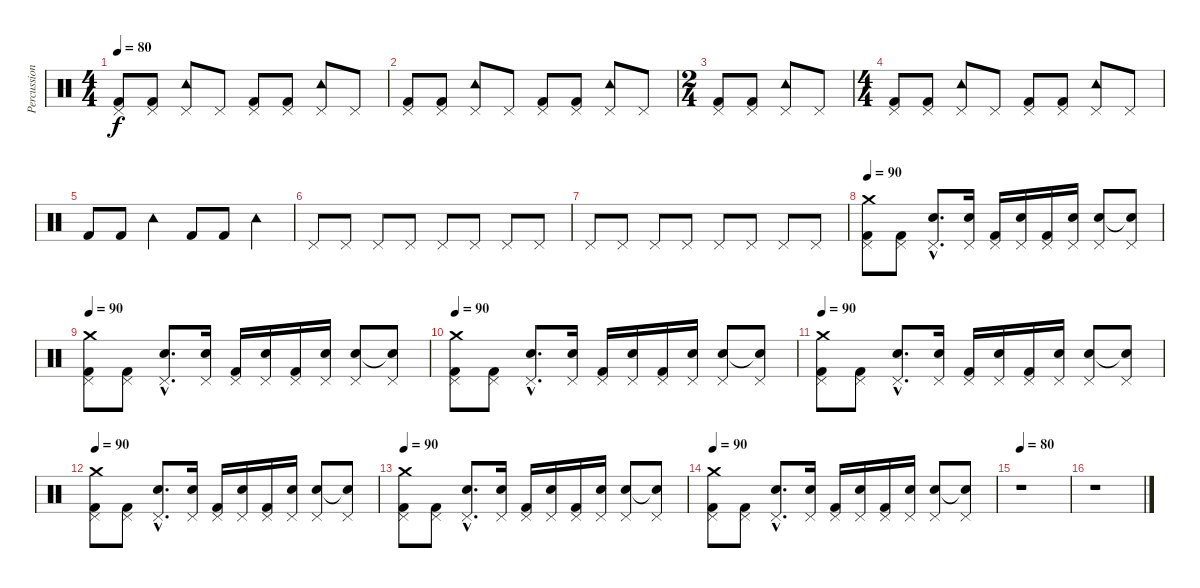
\track ("Percussions" "Percussion") {instrument percussion}
\staff {score}
\articulation defaults
\ts (4 4)
\tempo 80
\clef neutral
\ks c
("Pedal Hi-Hat (hit)" "Kick (hit) 2").8{dy f} ("Pedal Hi-Hat (hit)" "Kick (hit) 2").8 ("Pedal Hi-Hat (hit)" "Tambourine (hit)").8 "Pedal Hi-Hat (hit)".8 ("Pedal Hi-Hat (hit)" "Kick (hit) 2").8 ("Pedal Hi-Hat (hit)" "Kick (hit) 2").8 ("Pedal Hi-Hat (hit)" "Tambourine (hit)").8 "Pedal Hi-Hat (hit)".8 |
("Pedal Hi-Hat (hit)" "Kick (hit) 2").8 ("Pedal Hi-Hat (hit)" "Kick (hit) 2").8 ("Pedal Hi-Hat (hit)" "Tambourine (hit)").8 "Pedal Hi-Hat (hit)".8 ("Pedal Hi-Hat (hit)" "Kick (hit) 2").8 ("Pedal Hi-Hat (hit)" "Kick (hit) 2").8 ("Pedal Hi-Hat (hit)" "Tambourine (hit)").8 "Pedal Hi-Hat (hit)".8 |
\ts (2 4)
("Pedal Hi-Hat (hit)" "Kick (hit) 2").8 ("Pedal Hi-Hat (hit)" "Kick (hit) 2").8 ("Pedal Hi-Hat (hit)" "Tambourine (hit)").8 "Pedal Hi-Hat (hit)".8 |
\ts (4 4)
("Pedal Hi-Hat (hit)" "Kick (hit) 2").8 ("Pedal Hi-Hat (hit)" "Kick (hit) 2").8 ("Pedal Hi-Hat (hit)" "Tambourine (hit)").8 "Pedal Hi-Hat (hit)".8 ("Pedal Hi-Hat (hit)" "Kick (hit) 2").8 ("Pedal Hi-Hat (hit)" "Kick (hit) 2").8 ("Pedal Hi-Hat (hit)" "Tambourine (hit)").8 "Pedal Hi-Hat (hit)".8 |
"Kick (hit) 2".8 "Kick (hit) 2".8 "Tambourine (hit)".4 "Kick (hit) 2".8 "Kick (hit) 2".8 "Tambourine (hit)".4 |
"Pedal Hi-Hat (hit)".8 "Pedal Hi-Hat (hit)".8 "Pedal Hi-Hat (hit)".8 "Pedal Hi-Hat (hit)".8 "Pedal Hi-Hat (hit)".8 "Pedal Hi-Hat (hit)".8 "Pedal Hi-Hat (hit)".8 "Pedal Hi-Hat (hit)".8 |
"Pedal Hi-Hat (hit)".8 "Pedal Hi-Hat (hit)".8 "Pedal Hi-Hat (hit)".8 "Pedal Hi-Hat (hit)".8 "Pedal Hi-Hat (hit)".8 "Pedal Hi-Hat (hit)".8 "Pedal Hi-Hat (hit)".8 "Pedal Hi-Hat (hit)".8 |
\tempo 100
\tempo 90
("Pedal Hi-Hat (hit)" "Kick (hit) 2" "Crash medium (hit)").8 ("Pedal Hi-Hat (hit)" "Kick (hit) 2").8 ("Pedal Hi-Hat (hit)"{hac} "Electric Snare (hit)"{hac}).8{d} ("Pedal Hi-Hat (hit)" "Electric Snare (hit)").16 ("Pedal Hi-Hat (hit)" "Kick (hit) 2").16 ("Pedal Hi-Hat (hit)" "Electric Snare (hit)").16 ("Pedal Hi-Hat (hit)" "Kick (hit) 2").16 ("Pedal Hi-Hat (hit)" "Electric Snare (hit)").16 ("Pedal Hi-Hat (hit)" "Electric Snare (hit)").8 ("Pedal Hi-Hat (hit)" "Snare (hit)"{t}).8 |
\tempo 90
("Pedal Hi-Hat (hit)" "Kick (hit) 2" "Crash medium (hit)").8 ("Pedal Hi-Hat (hit)" "Kick (hit) 2").8 ("Pedal Hi-Hat (hit)"{hac} "Electric Snare (hit)"{hac}).8{d} ("Pedal Hi-Hat (hit)" "Electric Snare (hit)").16 ("Pedal Hi-Hat (hit)" "Kick (hit) 2").16 ("Pedal Hi-Hat (hit)" "Electric Snare (hit)").16 ("Pedal Hi-Hat (hit)" "Kick (hit) 2").16 ("Pedal Hi-Hat (hit)" "Electric Snare (hit)").16 ("Pedal Hi-Hat (hit)" "Electric Snare (hit)").8 ("Pedal Hi-Hat (hit)" "Snare (hit)"{t}).8 |
\tempo 100
\tempo 90
("Pedal Hi-Hat (hit)" "Kick (hit) 2" "Crash medium (hit)").8 ("Pedal Hi-Hat (hit)" "Kick (hit) 2").8 ("Pedal Hi-Hat (hit)"{hac} "Electric Snare (hit)"{hac}).8{d} ("Pedal Hi-Hat (hit)" "Electric Snare (hit)").16 ("Pedal Hi-Hat (hit)" "Kick (hit) 2").16 ("Pedal Hi-Hat (hit)" "Electric Snare (hit)").16 ("Pedal Hi-Hat (hit)" "Kick (hit) 2").16 ("Pedal Hi-Hat (hit)" "Electric Snare (hit)").16 ("Pedal Hi-Hat (hit)" "Electric Snare (hit)").8 ("Pedal Hi-Hat (hit)" "Snare (hit)"{t}).8 |
\tempo 90
("Pedal Hi-Hat (hit)" "Kick (hit) 2" "Crash medium (hit)").8 ("Pedal Hi-Hat (hit)" "Kick (hit) 2").8 ("Pedal Hi-Hat (hit)"{hac} "Electric Snare (hit)"{hac}).8{d} ("Pedal Hi-Hat (hit)" "Electric Snare (hit)").16 ("Pedal Hi-Hat (hit)" "Kick (hit) 2").16 ("Pedal Hi-Hat (hit)" "Electric Snare (hit)").16 ("Pedal Hi-Hat (hit)" "Kick (hit) 2").16 ("Pedal Hi-Hat (hit)" "Electric Snare (hit)").16 ("Pedal Hi-Hat (hit)" "Electric Snare (hit)").8 ("Pedal Hi-Hat (hit)" "Snare (hit)"{t}).8 |
\tempo 100
\tempo 90
("Pedal Hi-Hat (hit)" "Kick (hit) 2" "Crash medium (hit)").8 ("Pedal Hi-Hat (hit)" "Kick (hit) 2").8 ("Pedal Hi-Hat (hit)"{hac} "Electric Snare (hit)"{hac}).8{d} ("Pedal Hi-Hat (hit)" "Electric Snare (hit)").16 ("Pedal Hi-Hat (hit)" "Kick (hit) 2").16 ("Pedal Hi-Hat (hit)" "Electric Snare (hit)").16 ("Pedal Hi-Hat (hit)" "Kick (hit) 2").16 ("Pedal Hi-Hat (hit)" "Electric Snare (hit)").16 ("Pedal Hi-Hat (hit)" "Electric Snare (hit)").8 ("Pedal Hi-Hat (hit)" "Snare (hit)"{t}).8 |
\tempo 90
("Pedal Hi-Hat (hit)" "Kick (hit) 2" "Crash medium (hit)").8 ("Pedal Hi-Hat (hit)" "Kick (hit) 2").8 ("Pedal Hi-Hat (hit)"{hac} "Electric Snare (hit)"{hac}).8{d} ("Pedal Hi-Hat (hit)" "Electric Snare (hit)").16 ("Pedal Hi-Hat (hit)" "Kick (hit) 2").16 ("Pedal Hi-Hat (hit)" "Electric Snare (hit)").16 ("Pedal Hi-Hat (hit)" "Kick (hit) 2").16 ("Pedal Hi-Hat (hit)" "Electric Snare (hit)").16 ("Pedal Hi-Hat (hit)" "Electric Snare (hit)").8 ("Pedal Hi-Hat (hit)" "Snare (hit)"{t}).8 |
\tempo 90
("Pedal Hi-Hat (hit)" "Kick (hit) 2" "Crash medium (hit)").8 ("Pedal Hi-Hat (hit)" "Kick (hit) 2").8 ("Pedal Hi-Hat (hit)"{hac} "Electric Snare (hit)"{hac}).8{d} ("Pedal Hi-Hat (hit)" "Electric Snare (hit)").16 ("Pedal Hi-Hat (hit)" "Kick (hit) 2").16 ("Pedal Hi-Hat (hit)" "Electric Snare (hit)").16 ("Pedal Hi-Hat (hit)" "Kick (hit) 2").16 ("Pedal Hi-Hat (hit)" "Electric Snare (hit)").16 ("Pedal Hi-Hat (hit)" "Electric Snare (hit)").8 ("Pedal Hi-Hat (hit)" "Snare (hit)"{t}).8 |
\tempo 80
r.1 |
r.1
